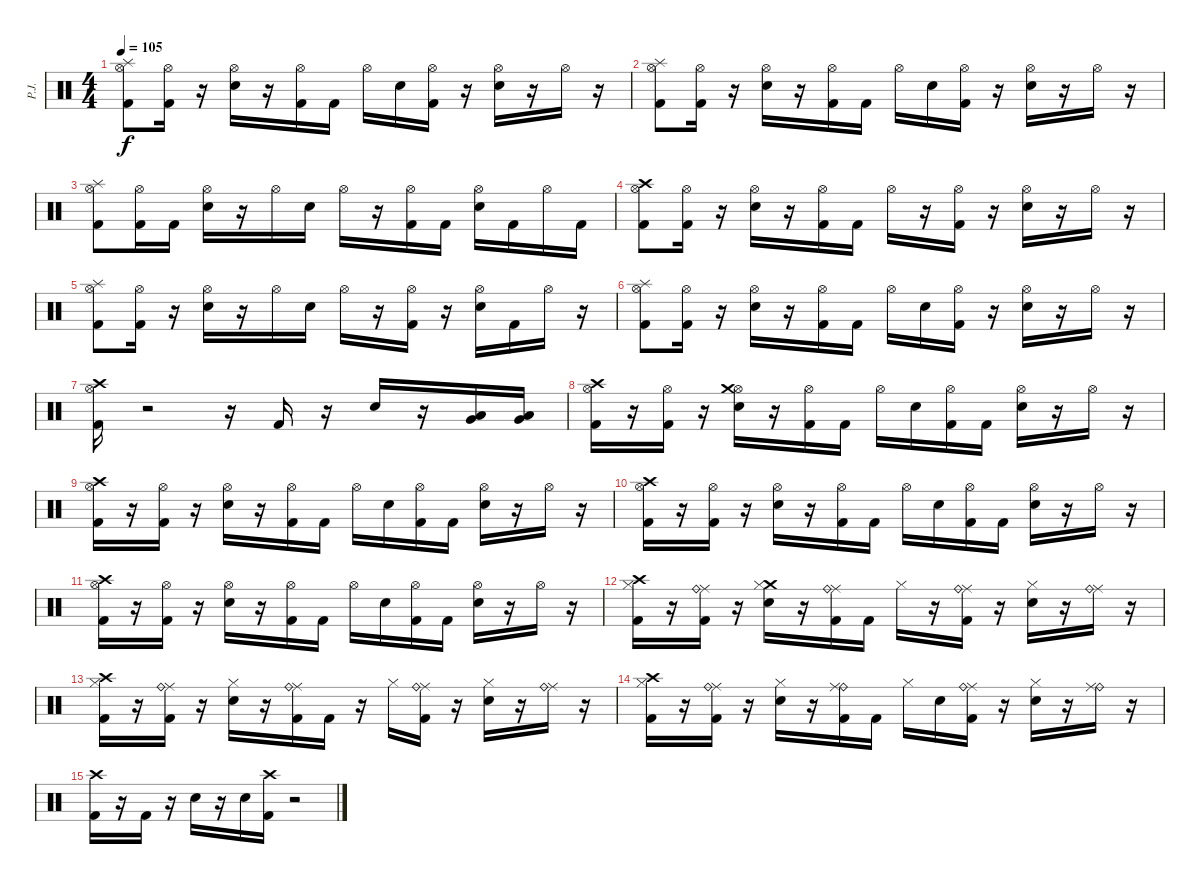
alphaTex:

\track ("P.J." "P.J.") {instrument percussion}
\staff {score}
\articulation defaults
\ts (4 4)
\tempo 105
\clef neutral
\ks c
("Hi-Hat (open)" "Kick (hit) 2" "Splash (hit)").8{dy f} ("Hi-Hat (open)" "Kick (hit) 2").16 r.16 ("Electric Snare (hit)" "Hi-Hat (open)").16 r.16 ("Hi-Hat (open)" "Kick (hit) 2").16 "Kick (hit) 2".16 "Hi-Hat (open)".16 "Electric Snare (hit)".16 ("Hi-Hat (open)" "Kick (hit) 2").16 r.16 ("Hi-Hat (open)" "Electric Snare (hit)").16 r.16 "Hi-Hat (open)".16 r.16 |
("Splash (hit)" "Hi-Hat (open)" "Kick (hit) 2").8 ("Kick (hit) 2" "Hi-Hat (open)").16 r.16 ("Hi-Hat (open)" "Electric Snare (hit)").16 r.16 ("Hi-Hat (open)" "Kick (hit) 2").16 "Kick (hit) 2".16 "Hi-Hat (open)".16 "Electric Snare (hit)".16 ("Hi-Hat (open)" "Kick (hit) 2").16 r.16 ("Electric Snare (hit)" "Hi-Hat (open)").16 r.16 "Hi-Hat (open)".16 r.16 |
("Kick (hit) 2" "Hi-Hat (open)" "Splash (hit)").8 ("Hi-Hat (open)" "Kick (hit) 2").16 "Kick (hit) 2".16 ("Electric Snare (hit)" "Hi-Hat (open)").16 r.16 "Hi-Hat (open)".16 "Electric Snare (hit)".16 "Hi-Hat (open)".16 r.16 ("Kick (hit) 2" "Hi-Hat (open)").16 "Kick (hit) 2".16 ("Electric Snare (hit)" "Hi-Hat (open)").16 "Kick (hit) 2".16 "Hi-Hat (open)".16 "Kick (hit) 2".16 |
("Crash high (hit)" "Hi-Hat (open)" "Kick (hit) 2").8 ("Hi-Hat (open)" "Kick (hit) 2").16 r.16 ("Electric Snare (hit)" "Hi-Hat (open)").16 r.16 ("Hi-Hat (open)" "Kick (hit) 2").16 "Kick (hit) 2".16 "Hi-Hat (open)".16 r.16 ("Kick (hit) 2" "Hi-Hat (open)").16 r.16 ("Electric Snare (hit)" "Hi-Hat (open)").16 r.16 "Hi-Hat (open)".16 r.16 |
("Splash (hit)" "Kick (hit) 2" "Hi-Hat (open)").8 ("Hi-Hat (open)" "Kick (hit) 2").16 r.16 ("Hi-Hat (open)" "Electric Snare (hit)").16 r.16 "Hi-Hat (open)".16 "Electric Snare (hit)".16 "Hi-Hat (open)".16 r.16 ("Kick (hit) 2" "Hi-Hat (open)").16 r.16 ("Hi-Hat (open)" "Electric Snare (hit)").16 "Kick (hit) 2".16 "Hi-Hat (open)".16 r.16 |
("Kick (hit) 2" "Hi-Hat (open)" "Splash (hit)").8 ("Kick (hit) 2" "Hi-Hat (open)").16 r.16 ("Hi-Hat (open)" "Electric Snare (hit)").16 r.16 ("Kick (hit) 2" "Hi-Hat (open)").16 "Kick (hit) 2".16 "Hi-Hat (open)".16 "Electric Snare (hit)".16 ("Hi-Hat (open)" "Kick (hit) 2").16 r.16 ("Hi-Hat (open)" "Electric Snare (hit)").16 r.16 "Hi-Hat (open)".16 r.16 |
("Crash high (hit)" "Hi-Hat (open)" "Kick (hit) 2").16 r.2 r.16 "Kick (hit) 2".16 r.16 "Electric Snare (hit)".16 r.16 ("Very Low Tom (hit)" "Low Floor Tom (hit)").16 ("Very Low Tom (hit)" "Low Floor Tom (hit)").16 |
("Hi-Hat (open)" "Kick (hit) 2" "Crash high (hit)").16 r.16 ("Kick (hit) 2" "Hi-Hat (open)").16 r.16 ("Hi-Hat (open)" "Electric Snare (hit)" "Crash medium (hit)").16 r.16 ("Kick (hit) 2" "Hi-Hat (open)").16 "Kick (hit) 2".16 "Hi-Hat (open)".16 "Electric Snare (hit)".16 ("Kick (hit) 2" "Hi-Hat (open)").16 "Kick (hit) 2".16 ("Hi-Hat (open)" "Electric Snare (hit)").16 r.16 "Hi-Hat (open)".16 r.16 |
("Crash high (hit)" "Hi-Hat (open)" "Kick (hit) 2").16 r.16 ("Kick (hit) 2" "Hi-Hat (open)").16 r.16 ("Electric Snare (hit)" "Hi-Hat (open)").16 r.16 ("Kick (hit) 2" "Hi-Hat (open)").16 "Kick (hit) 2".16 "Hi-Hat (open)".16 "Electric Snare (hit)".16 ("Kick (hit) 2" "Hi-Hat (open)").16 "Kick (hit) 2".16 ("Hi-Hat (open)" "Electric Snare (hit)").16 r.16 "Hi-Hat (open)".16 r.16 |
("Crash high (hit)" "Kick (hit) 2" "Hi-Hat (open)").16 r.16 ("Hi-Hat (open)" "Kick (hit) 2").16 r.16 ("Hi-Hat (open)" "Electric Snare (hit)").16 r.16 ("Kick (hit) 2" "Hi-Hat (open)").16 "Kick (hit) 2".16 "Hi-Hat (open)".16 "Electric Snare (hit)".16 ("Hi-Hat (open)" "Kick (hit) 2").16 "Kick (hit) 2".16 ("Electric Snare (hit)" "Hi-Hat (open)").16 r.16 "Hi-Hat (open)".16 r.16 |
("Hi-Hat (open)" "Kick (hit) 2" "Crash high (hit)").16 r.16 ("Kick (hit) 2" "Hi-Hat (open)").16 r.16 ("Hi-Hat (open)" "Electric Snare (hit)").16 r.16 ("Kick (hit) 2" "Hi-Hat (open)").16 "Kick (hit) 2".16 "Hi-Hat (open)".16 "Electric Snare (hit)".16 ("Hi-Hat (open)" "Kick (hit) 2").16 "Kick (hit) 2".16 ("Hi-Hat (open)" "Electric Snare (hit)").16 r.16 "Hi-Hat (open)".16 r.16 |
("Kick (hit) 2" "Crash high (hit)" "Hi-Hat (closed)").16 r.16 ("Kick (hit) 2" "Ride (middle)" "Ride (bell)").16 r.16 ("Electric Snare (hit)" "Crash medium (hit)" "Hi-Hat (closed)").16 r.16 ("Kick (hit) 2" "Ride (middle)" "Ride (bell)").16 "Kick (hit) 2".16 "Hi-Hat (closed)".16 r.16 ("Kick (hit) 2" "Ride (middle)" "Ride (bell)").16 r.16 ("Electric Snare (hit)" "Hi-Hat (closed)").16 r.16 ("Ride (middle)" "Ride (bell)").16 r.16 |
("Kick (hit) 2" "Crash high (hit)" "Hi-Hat (closed)").16 r.16 ("Kick (hit) 2" "Ride (middle)" "Ride (bell)").16 r.16 ("Electric Snare (hit)" "Hi-Hat (closed)").16 r.16 ("Kick (hit) 2" "Ride (middle)" "Ride (bell)").16 "Kick (hit) 2".16 r.16 "Hi-Hat (closed)".16 ("Kick (hit) 2" "Ride (middle)" "Ride (bell)").16 r.16 ("Electric Snare (hit)" "Hi-Hat (closed)").16 r.16 ("Ride (middle)" "Ride (bell)").16 r.16 |
("Crash high (hit)" "Kick (hit) 2" "Hi-Hat (closed)").16 r.16 ("Kick (hit) 2" "Ride (middle)" "Ride (bell)").16 r.16 ("Electric Snare (hit)" "Hi-Hat (closed)").16 r.16 ("Kick (hit) 2" "Ride (bell)" "Ride (middle)").16 "Kick (hit) 2".16 "Hi-Hat (closed)".16 "Electric Snare (hit)".16 ("Kick (hit) 2" "Ride (middle)" "Ride (bell)").16 r.16 ("Electric Snare (hit)" "Hi-Hat (closed)").16 r.16 ("Ride (bell)" "Ride (middle)").16 r.16 |
("Kick (hit) 2" "Crash high (hit)").16 r.16 "Kick (hit) 2".16 r.16 "Electric Snare (hit)".16 r.16 "Electric Snare (hit)".16 ("Kick (hit) 2" "Crash high (hit)").16 r.2
